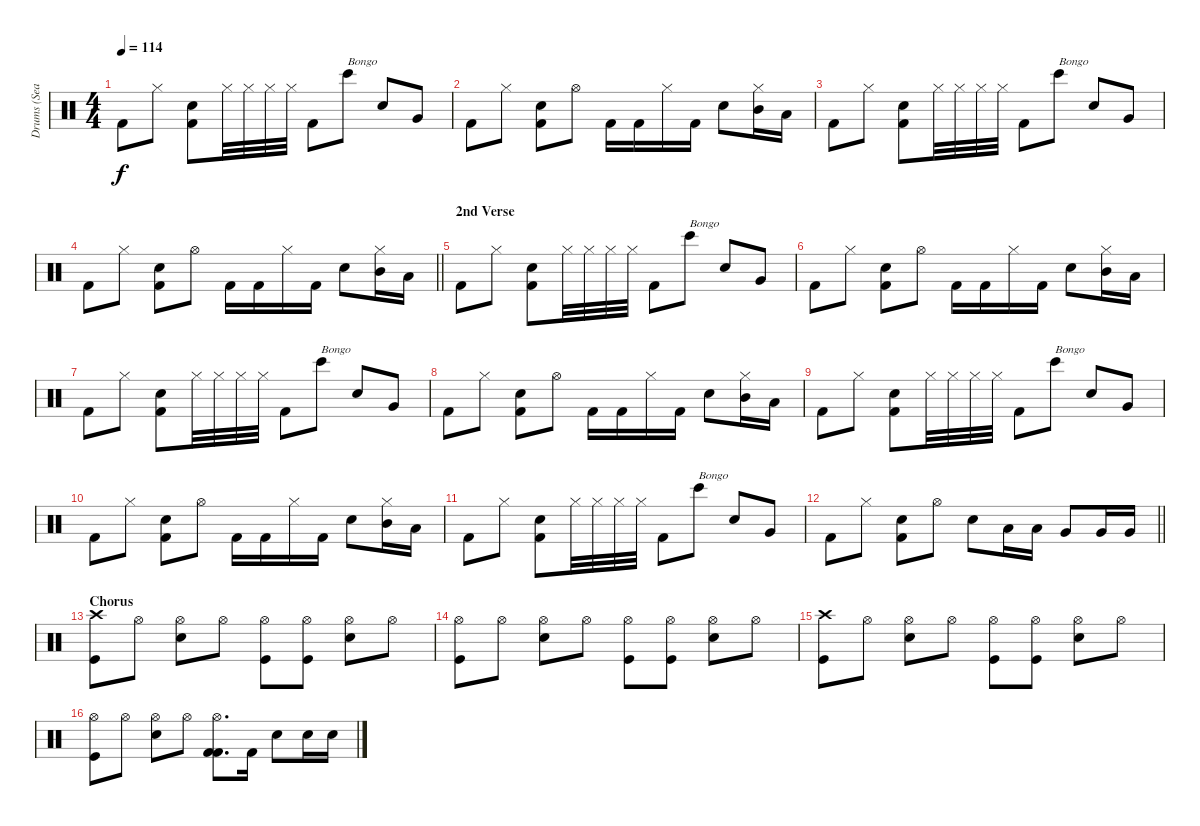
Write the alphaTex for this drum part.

\track ("Drums (Sean)" "Drums (Sea") {instrument percussion}
\staff {score}
\articulation defaults
\ts (4 4)
\tempo 114
\clef neutral
\ks c "Kick (hit) 2".8{dy f} "Hi-Hat (closed)".8
("Snare (hit) 2" "Kick (hit) 2").8 "Hi-Hat (closed)".32 "Hi-Hat (closed)".32 "Hi-Hat (closed)".32 "Hi-Hat (closed)".32 "Kick (hit) 2".8 "Bongo High (hit)".8{txt "Bongo"} "Snare (hit) 2".8 "Very Low Tom (hit)".8 |
"Kick (hit) 2".8 "Hi-Hat (closed)".8 ("Snare (hit) 2" "Kick (hit) 2").8 "Hi-Hat (open)".8 "Kick (hit) 2".16 "Kick (hit) 2".16 "Hi-Hat (closed)".16 "Kick (hit) 2".16 "Snare (hit) 2".8 ("Hi-Hat (closed)" "Mid Tom (hit)").16 "Low Tom (hit)".16 |
"Kick (hit) 2".8 "Hi-Hat (closed)".8 ("Snare (hit) 2" "Kick (hit) 2").8 "Hi-Hat (closed)".32 "Hi-Hat (closed)".32 "Hi-Hat (closed)".32 "Hi-Hat (closed)".32 "Kick (hit) 2".8 "Bongo High (hit)".8{txt "Bongo"} "Snare (hit) 2".8 "Very Low Tom (hit)".8 |
\barLineRight lightlight "Kick (hit) 2".8 "Hi-Hat (closed)".8
("Snare (hit) 2" "Kick (hit) 2").8 "Hi-Hat (open)".8 "Kick (hit) 2".16 "Kick (hit) 2".16 "Hi-Hat (closed)".16 "Kick (hit) 2".16 "Snare (hit) 2".8 ("Hi-Hat (closed)" "Mid Tom (hit)").16 "Low Tom (hit)".16 |
\section ("" "2nd Verse")
"Kick (hit) 2".8 "Hi-Hat (closed)".8 ("Snare (hit) 2" "Kick (hit) 2").8 "Hi-Hat (closed)".32 "Hi-Hat (closed)".32 "Hi-Hat (closed)".32 "Hi-Hat (closed)".32 "Kick (hit) 2".8 "Bongo High (hit)".8{txt "Bongo"} "Snare (hit) 2".8 "Very Low Tom (hit)".8 |
"Kick (hit) 2".8 "Hi-Hat (closed)".8 ("Snare (hit) 2" "Kick (hit) 2").8 "Hi-Hat (open)".8 "Kick (hit) 2".16 "Kick (hit) 2".16 "Hi-Hat (closed)".16 "Kick (hit) 2".16 "Snare (hit) 2".8 ("Hi-Hat (closed)" "Mid Tom (hit)").16 "Low Tom (hit)".16 |
"Kick (hit) 2".8 "Hi-Hat (closed)".8 ("Snare (hit) 2" "Kick (hit) 2").8 "Hi-Hat (closed)".32 "Hi-Hat (closed)".32 "Hi-Hat (closed)".32 "Hi-Hat (closed)".32 "Kick (hit) 2".8 "Bongo High (hit)".8{txt "Bongo"} "Snare (hit) 2".8 "Very Low Tom (hit)".8 |
"Kick (hit) 2".8 "Hi-Hat (closed)".8 ("Snare (hit) 2" "Kick (hit) 2").8 "Hi-Hat (open)".8 "Kick (hit) 2".16 "Kick (hit) 2".16 "Hi-Hat (closed)".16 "Kick (hit) 2".16 "Snare (hit) 2".8 ("Hi-Hat (closed)" "Mid Tom (hit)").16 "Low Tom (hit)".16 |
"Kick (hit) 2".8 "Hi-Hat (closed)".8 ("Snare (hit) 2" "Kick (hit) 2").8 "Hi-Hat (closed)".32 "Hi-Hat (closed)".32 "Hi-Hat (closed)".32 "Hi-Hat (closed)".32 "Kick (hit) 2".8 "Bongo High (hit)".8{txt "Bongo"} "Snare (hit) 2".8 "Very Low Tom (hit)".8 |
"Kick (hit) 2".8 "Hi-Hat (closed)".8 ("Snare (hit) 2" "Kick (hit) 2").8 "Hi-Hat (open)".8 "Kick (hit) 2".16 "Kick (hit) 2".16 "Hi-Hat (closed)".16 "Kick (hit) 2".16 "Snare (hit) 2".8 ("Hi-Hat (closed)" "Mid Tom (hit)").16 "Low Tom (hit)".16 |
"Kick (hit) 2".8 "Hi-Hat (closed)".8 ("Snare (hit) 2" "Kick (hit) 2").8 "Hi-Hat (closed)".32 "Hi-Hat (closed)".32 "Hi-Hat (closed)".32 "Hi-Hat (closed)".32 "Kick (hit) 2".8 "Bongo High (hit)".8{txt "Bongo"} "Snare (hit) 2".8 "Very Low Tom (hit)".8 |
\barLineRight lightlight "Kick (hit) 2".8 "Hi-Hat (closed)".8
("Snare (hit) 2" "Kick (hit) 2").8 "Hi-Hat (open)".8 "Snare (hit) 2".8 "Low Tom (hit)".16 "Low Tom (hit)".16 "Very Low Tom (hit)".8 "Very Low Tom (hit)".16 "Very Low Tom (hit)".16 |
\section ("" "Chorus")
("Kick (hit)" "Crash high (hit)").8 "Hi-Hat (open)".8 ("Snare (hit) 2" "Hi-Hat (open)").8 "Hi-Hat (open)".8 ("Kick (hit)" "Hi-Hat (open)").8 ("Kick (hit)" "Hi-Hat (open)").8 ("Snare (hit) 2" "Hi-Hat (open)").8 "Hi-Hat (open)".8 |
("Kick (hit)" "Hi-Hat (open)").8 "Hi-Hat (open)".8 ("Snare (hit) 2" "Hi-Hat (open)").8 "Hi-Hat (open)".8 ("Kick (hit)" "Hi-Hat (open)").8 ("Kick (hit)" "Hi-Hat (open)").8 ("Snare (hit) 2" "Hi-Hat (open)").8 "Hi-Hat (open)".8 |
("Kick (hit)" "Crash high (hit)").8 "Hi-Hat (open)".8 ("Snare (hit) 2" "Hi-Hat (open)").8 "Hi-Hat (open)".8 ("Kick (hit)" "Hi-Hat (open)").8 ("Kick (hit)" "Hi-Hat (open)").8 ("Snare (hit) 2" "Hi-Hat (open)").8 "Hi-Hat (open)".8 |
("Kick (hit)" "Hi-Hat (open)").8 "Hi-Hat (open)".8 ("Snare (hit) 2" "Hi-Hat (open)").8 "Hi-Hat (open)".8 ("Kick (hit) 2" "Kick (hit) 2" "Hi-Hat (open)").8{d} "Kick (hit) 2".16 "Snare (hit) 2".8 "Snare (hit) 2".16 "Snare (hit) 2".16
